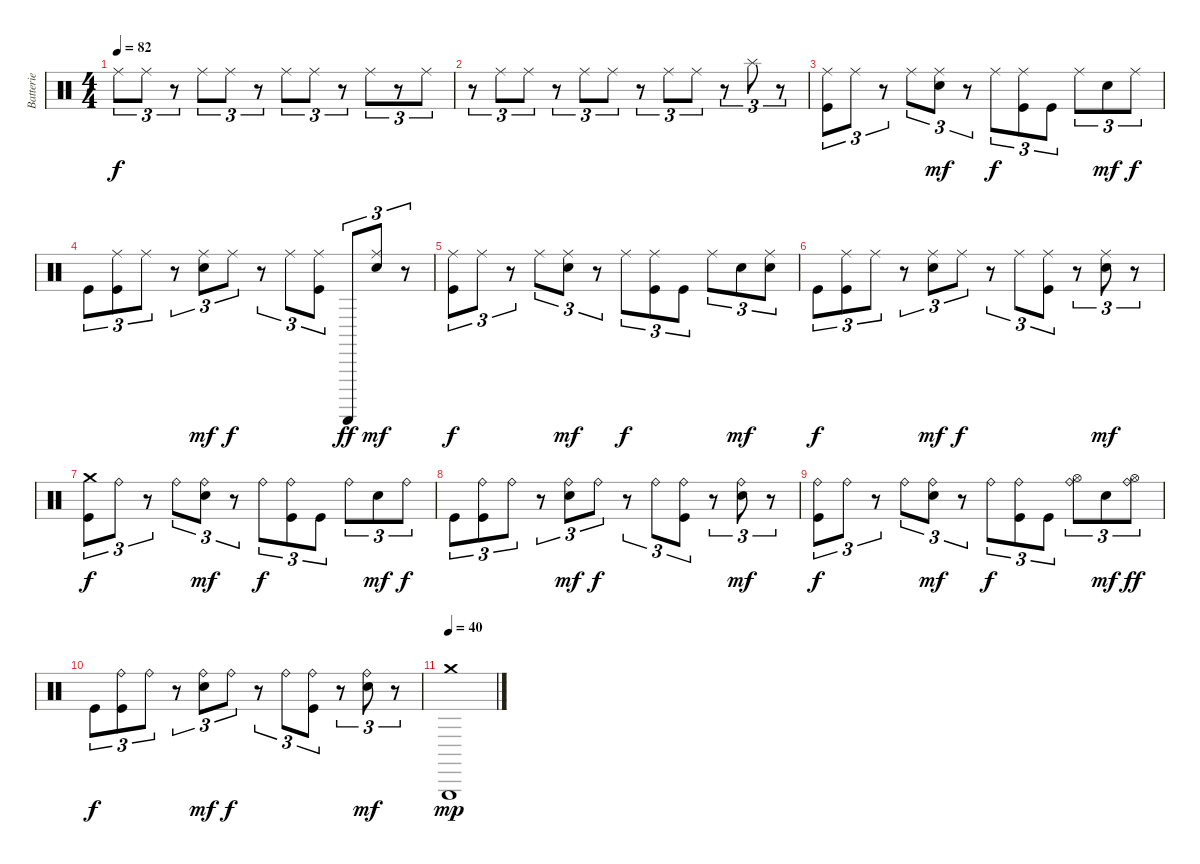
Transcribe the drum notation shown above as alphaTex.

\track ("Batterie" "Batterie") {instrument percussion}
\staff {score}
\articulation defaults
\ts (4 4)
\tempo 82
\clef neutral
\ks c "Ride (middle)".8{tu (3 2) dy f} "Ride (middle)".8{tu (3 2)}
r.8{tu (3 2)} "Ride (middle)".8{tu (3 2)} "Ride (middle)".8{tu (3 2)} r.8{tu (3 2)} "Ride (middle)".8{tu (3 2)} "Ride (middle)".8{tu (3 2)} r.8{tu (3 2)} "Ride (middle)".8{tu (3 2)} r.8{tu (3 2)} "Ride (middle)".8{tu (3 2)} |
r.8{tu (3 2)} "Ride (middle)".8{tu (3 2)} "Ride (middle)".8{tu (3 2)} r.8{tu (3 2)} "Ride (middle)".8{tu (3 2)} "Ride (middle)".8{tu (3 2)} r.8{tu (3 2)} "Ride (middle)".8{tu (3 2)} "Ride (middle)".8{tu (3 2)} r.8{tu (3 2)} "Splash (hit)".8{tu (3 2)} r.8{tu (3 2)} |
("Ride (middle)" "Kick (hit)").8{tu (3 2)} "Ride (middle)".8{tu (3 2)} r.8{tu (3 2)} "Ride (middle)".8{tu (3 2)} ("Ride (middle)" "Snare (hit) 2").8{tu (3 2) dy mf} r.8{tu (3 2)} "Ride (middle)".8{tu (3 2) dy f} ("Ride (middle)" "Kick (hit)").8{tu (3 2)} "Kick (hit)".8{tu (3 2)} "Ride (middle)".8{tu (3 2)} "Snare (hit) 2".8{tu (3 2) dy mf} "Ride (middle)".8{tu (3 2) dy f} |
"Kick (hit)".8{tu (3 2)} ("Ride (middle)" "Kick (hit)").8{tu (3 2)} "Ride (middle)".8{tu (3 2)} r.8{tu (3 2)} ("Ride (middle)" "Snare (hit) 2").8{tu (3 2) dy mf} "Ride (middle)".8{tu (3 2) dy f} r.8{tu (3 2)} "Ride (middle)".8{tu (3 2)} ("Ride (middle)" "Kick (hit)").8{tu (3 2)} "Guiro (scrap-return)".8{tu (3 2) dy ff} ("Ride (middle)" "Snare (hit) 2").8{tu (3 2) dy mf} r.8{tu (3 2)} |
("Ride (middle)" "Kick (hit)").8{tu (3 2) dy f} "Ride (middle)".8{tu (3 2)} r.8{tu (3 2)} "Ride (middle)".8{tu (3 2)} ("Ride (middle)" "Snare (hit) 2").8{tu (3 2) dy mf} r.8{tu (3 2)} "Ride (middle)".8{tu (3 2) dy f} ("Ride (middle)" "Kick (hit)").8{tu (3 2)} "Kick (hit)".8{tu (3 2)} "Ride (middle)".8{tu (3 2)} "Snare (hit) 2".8{tu (3 2) dy mf} ("Ride (middle)" "Snare (hit) 2").8{tu (3 2)} |
"Kick (hit)".8{tu (3 2) dy f} ("Ride (middle)" "Kick (hit)").8{tu (3 2)} "Ride (middle)".8{tu (3 2)} r.8{tu (3 2)} ("Ride (middle)" "Snare (hit) 2").8{tu (3 2) dy mf} "Ride (middle)".8{tu (3 2) dy f} r.8{tu (3 2)} "Ride (middle)".8{tu (3 2)} ("Ride (middle)" "Kick (hit)").8{tu (3 2)} r.8{tu (3 2)} ("Ride (middle)" "Snare (hit) 2").8{tu (3 2) dy mf} r.8{tu (3 2)} |
("Crash medium (hit)" "Kick (hit)").8{tu (3 2) dy f} "Ride (bell)".8{tu (3 2)} r.8{tu (3 2)} "Ride (bell)".8{tu (3 2)} ("Ride (bell)" "Snare (hit) 2").8{tu (3 2) dy mf} r.8{tu (3 2)} "Ride (bell)".8{tu (3 2) dy f} ("Ride (bell)" "Kick (hit)").8{tu (3 2)} "Kick (hit)".8{tu (3 2)} "Ride (bell)".8{tu (3 2)} "Snare (hit) 2".8{tu (3 2) dy mf} "Ride (bell)".8{tu (3 2) dy f} |
"Kick (hit)".8{tu (3 2)} ("Ride (bell)" "Kick (hit)").8{tu (3 2)} "Ride (bell)".8{tu (3 2)} r.8{tu (3 2)} ("Ride (bell)" "Snare (hit) 2").8{tu (3 2) dy mf} "Ride (bell)".8{tu (3 2) dy f} r.8{tu (3 2)} "Ride (bell)".8{tu (3 2)} ("Ride (bell)" "Kick (hit)").8{tu (3 2)} r.8{tu (3 2)} ("Ride (bell)" "Snare (hit) 2").8{tu (3 2) dy mf} r.8{tu (3 2)} |
("Ride (bell)" "Kick (hit)").8{tu (3 2) dy f} "Ride (bell)".8{tu (3 2)} r.8{tu (3 2)} "Ride (bell)".8{tu (3 2)} ("Ride (bell)" "Snare (hit) 2").8{tu (3 2) dy mf} r.8{tu (3 2)} "Ride (bell)".8{tu (3 2) dy f} ("Ride (bell)" "Kick (hit)").8{tu (3 2)} "Kick (hit)".8{tu (3 2)} ("Hi-Hat (open)" "Ride (bell)").8{tu (3 2)} "Snare (hit) 2".8{tu (3 2) dy mf} ("Hi-Hat (open)" "Ride (bell)").8{tu (3 2) dy ff} |
"Kick (hit)".8{tu (3 2) dy f} ("Ride (bell)" "Kick (hit)").8{tu (3 2)} "Ride (bell)".8{tu (3 2)} r.8{tu (3 2)} ("Ride (bell)" "Snare (hit) 2").8{tu (3 2) dy mf} "Ride (bell)".8{tu (3 2) dy f} r.8{tu (3 2)} "Ride (bell)".8{tu (3 2)} ("Ride (bell)" "Kick (hit)").8{tu (3 2)} r.8{tu (3 2)} ("Ride (bell)" "Snare (hit) 2").8{tu (3 2) dy mf} r.8{tu (3 2)} |
\tempo 40
("Triangle (hit)" "Crash medium (hit)").1{dy mp volume 0}
